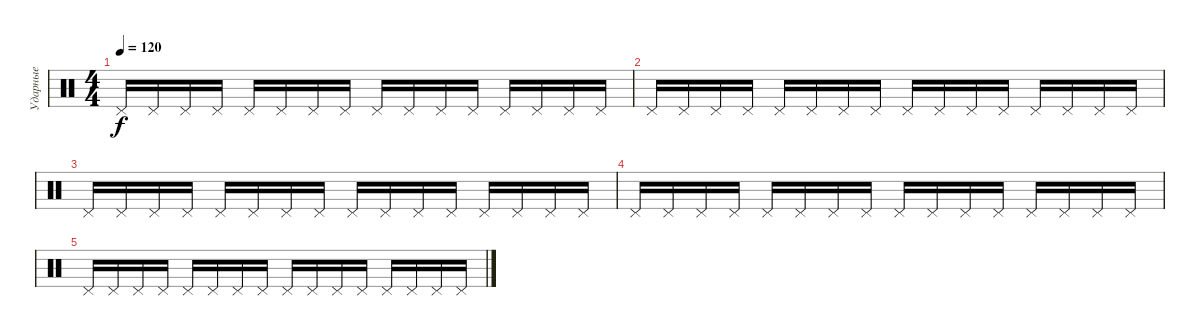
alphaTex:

\track ("Ударные" "Ударные") {instrument percussion}
\staff {score}
\articulation defaults
\ts (4 4)
\tempo 120
\clef neutral
\ks c "Pedal Hi-Hat (hit)".16{dy f} "Pedal Hi-Hat (hit)".16 "Pedal Hi-Hat (hit)".16 "Pedal Hi-Hat (hit)".16 "Pedal Hi-Hat (hit)".16 "Pedal Hi-Hat (hit)".16 "Pedal Hi-Hat (hit)".16 "Pedal Hi-Hat (hit)".16 "Pedal Hi-Hat (hit)".16 "Pedal Hi-Hat (hit)".16 "Pedal Hi-Hat (hit)".16 "Pedal Hi-Hat (hit)".16 "Pedal Hi-Hat (hit)".16 "Pedal Hi-Hat (hit)".16 "Pedal Hi-Hat (hit)".16 "Pedal Hi-Hat (hit)".16
|
"Pedal Hi-Hat (hit)".16 "Pedal Hi-Hat (hit)".16 "Pedal Hi-Hat (hit)".16 "Pedal Hi-Hat (hit)".16 "Pedal Hi-Hat (hit)".16 "Pedal Hi-Hat (hit)".16 "Pedal Hi-Hat (hit)".16 "Pedal Hi-Hat (hit)".16 "Pedal Hi-Hat (hit)".16 "Pedal Hi-Hat (hit)".16 "Pedal Hi-Hat (hit)".16 "Pedal Hi-Hat (hit)".16 "Pedal Hi-Hat (hit)".16 "Pedal Hi-Hat (hit)".16 "Pedal Hi-Hat (hit)".16 "Pedal Hi-Hat (hit)".16 |
"Pedal Hi-Hat (hit)".16 "Pedal Hi-Hat (hit)".16 "Pedal Hi-Hat (hit)".16 "Pedal Hi-Hat (hit)".16 "Pedal Hi-Hat (hit)".16 "Pedal Hi-Hat (hit)".16 "Pedal Hi-Hat (hit)".16 "Pedal Hi-Hat (hit)".16 "Pedal Hi-Hat (hit)".16 "Pedal Hi-Hat (hit)".16 "Pedal Hi-Hat (hit)".16 "Pedal Hi-Hat (hit)".16 "Pedal Hi-Hat (hit)".16 "Pedal Hi-Hat (hit)".16 "Pedal Hi-Hat (hit)".16 "Pedal Hi-Hat (hit)".16 |
"Pedal Hi-Hat (hit)".16 "Pedal Hi-Hat (hit)".16 "Pedal Hi-Hat (hit)".16 "Pedal Hi-Hat (hit)".16 "Pedal Hi-Hat (hit)".16 "Pedal Hi-Hat (hit)".16 "Pedal Hi-Hat (hit)".16 "Pedal Hi-Hat (hit)".16 "Pedal Hi-Hat (hit)".16 "Pedal Hi-Hat (hit)".16 "Pedal Hi-Hat (hit)".16 "Pedal Hi-Hat (hit)".16 "Pedal Hi-Hat (hit)".16 "Pedal Hi-Hat (hit)".16 "Pedal Hi-Hat (hit)".16 "Pedal Hi-Hat (hit)".16 |
"Pedal Hi-Hat (hit)".16 "Pedal Hi-Hat (hit)".16 "Pedal Hi-Hat (hit)".16 "Pedal Hi-Hat (hit)".16 "Pedal Hi-Hat (hit)".16 "Pedal Hi-Hat (hit)".16 "Pedal Hi-Hat (hit)".16 "Pedal Hi-Hat (hit)".16 "Pedal Hi-Hat (hit)".16 "Pedal Hi-Hat (hit)".16 "Pedal Hi-Hat (hit)".16 "Pedal Hi-Hat (hit)".16 "Pedal Hi-Hat (hit)".16 "Pedal Hi-Hat (hit)".16 "Pedal Hi-Hat (hit)".16 "Pedal Hi-Hat (hit)".16
